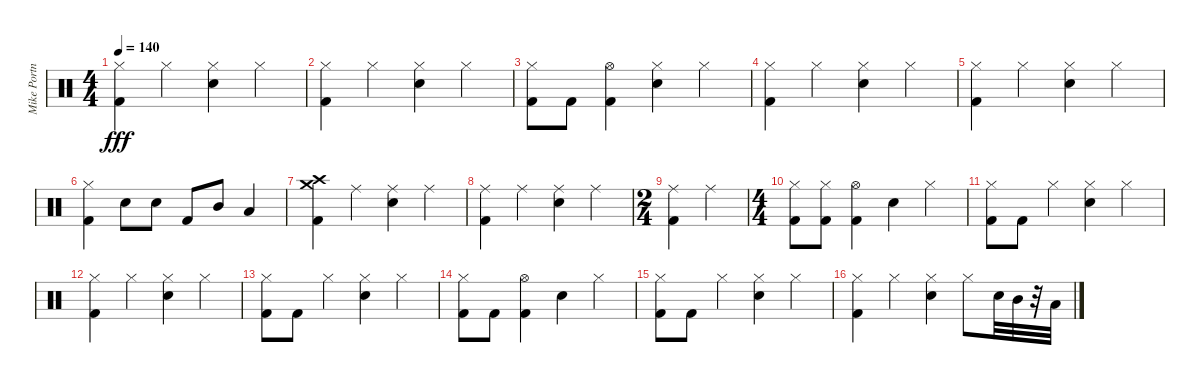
\track ("Mike Portnoy - Drum" "Mike Portn") {instrument percussion}
\staff {score}
\articulation defaults
\ts (4 4)
\tempo 140
\clef neutral
\ks c
("Hi-Hat (closed)" "Kick (hit) 2").4{dy fff} "Hi-Hat (closed)".4 ("Hi-Hat (closed)" "Snare (hit) 2").4 "Hi-Hat (closed)".4 |
("Hi-Hat (closed)" "Kick (hit) 2").4 "Hi-Hat (closed)".4 ("Hi-Hat (closed)" "Snare (hit) 2").4 "Hi-Hat (closed)".4 |
("Hi-Hat (closed)" "Kick (hit) 2").8 "Kick (hit) 2".8 ("Hi-Hat (open)" "Kick (hit) 2").4 ("Hi-Hat (closed)" "Snare (hit) 2").4 "Hi-Hat (closed)".4 |
("Hi-Hat (closed)" "Kick (hit) 2").4 "Hi-Hat (closed)".4 ("Hi-Hat (closed)" "Snare (hit) 2").4 "Hi-Hat (closed)".4 |
("Hi-Hat (closed)" "Kick (hit) 2").4 "Hi-Hat (closed)".4 ("Hi-Hat (closed)" "Snare (hit) 2").4 "Hi-Hat (closed)".4 |
("Hi-Hat (closed)" "Kick (hit) 2").4 "Snare (hit) 2".8 "Snare (hit) 2".8 "Kick (hit) 2".8 "Mid Tom (hit)".8 "Low Tom (hit)".4 |
("Crash high (hit)" "Crash medium (hit)" "Kick (hit) 2").4 "Ride (middle)".4 ("Ride (middle)" "Snare (hit) 2").4 "Ride (middle)".4 |
("Ride (middle)" "Kick (hit) 2").4 "Ride (middle)".4 ("Ride (middle)" "Snare (hit) 2").4 "Ride (middle)".4 |
\ts (2 4)
("Ride (middle)" "Kick (hit) 2").4 "Ride (middle)".4 |
\ts (4 4)
("Hi-Hat (closed)" "Kick (hit) 2").8 ("Hi-Hat (closed)" "Kick (hit) 2").8 ("Hi-Hat (open)" "Kick (hit) 2").4 "Snare (hit) 2".4 "Hi-Hat (closed)".4 |
("Hi-Hat (closed)" "Kick (hit) 2").8 "Kick (hit) 2".8 "Hi-Hat (closed)".4 ("Hi-Hat (closed)" "Snare (hit) 2").4 "Hi-Hat (closed)".4 |
("Hi-Hat (closed)" "Kick (hit) 2").4 "Hi-Hat (closed)".4 ("Hi-Hat (closed)" "Snare (hit) 2").4 "Hi-Hat (closed)".4 |
("Hi-Hat (closed)" "Kick (hit) 2").8 "Kick (hit) 2".8 "Hi-Hat (closed)".4 ("Hi-Hat (closed)" "Snare (hit) 2").4 "Hi-Hat (closed)".4 |
("Hi-Hat (closed)" "Kick (hit) 2").8 "Kick (hit) 2".8 ("Hi-Hat (open)" "Kick (hit) 2").4 "Snare (hit) 2".4 "Hi-Hat (closed)".4 |
("Hi-Hat (closed)" "Kick (hit) 2").8 "Kick (hit) 2".8 "Hi-Hat (closed)".4 ("Hi-Hat (closed)" "Snare (hit) 2").4 "Hi-Hat (closed)".4 |
("Hi-Hat (closed)" "Kick (hit) 2").4 "Hi-Hat (closed)".4 ("Hi-Hat (closed)" "Snare (hit) 2").4 "Hi-Hat (closed)".8 "Snare (hit) 2".32 "Mid Tom (hit)".32 r.32 "Low Tom (hit)".32
